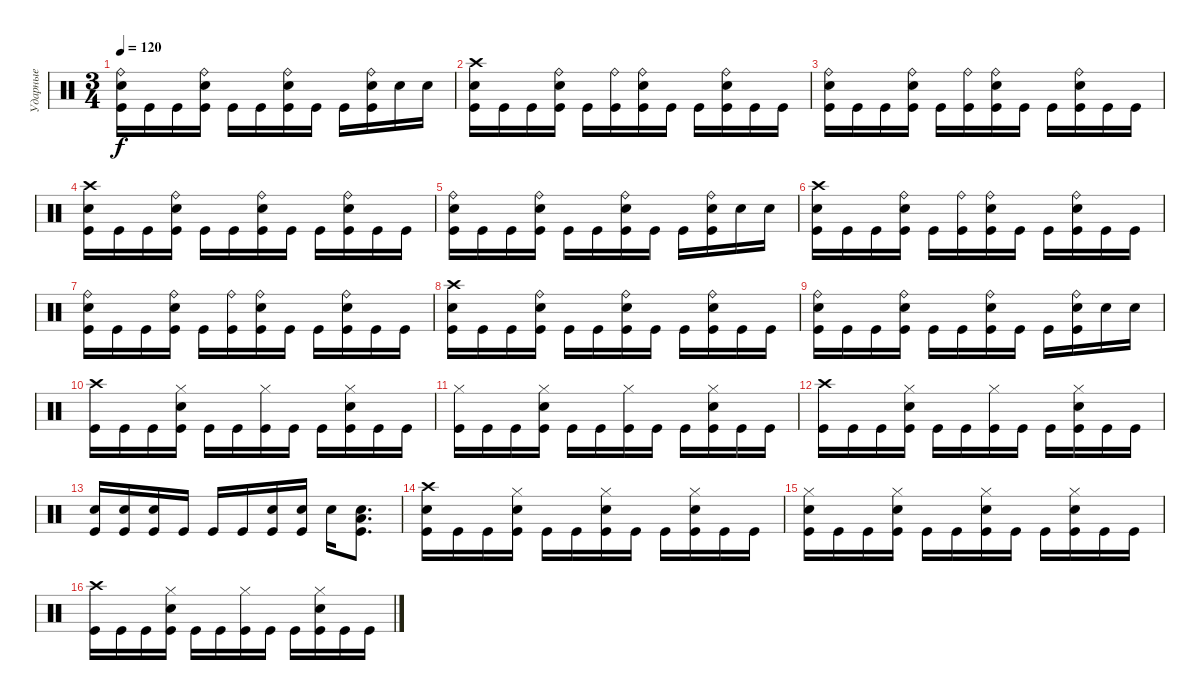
\track ("Ударные" "Ударные") {instrument percussion}
\staff {score}
\articulation defaults
\ts (3 4)
\tempo 120
\clef neutral
\ks c
("Ride (bell)" "Electric Snare (hit)" "Kick (hit)").16{dy f} "Kick (hit)".16 "Kick (hit)".16 ("Ride (bell)" "Electric Snare (hit)" "Kick (hit)").16 "Kick (hit)".16 "Kick (hit)".16 ("Ride (bell)" "Electric Snare (hit)" "Kick (hit)").16 "Kick (hit)".16 "Kick (hit)".16 ("Ride (bell)" "Electric Snare (hit)" "Kick (hit)").16 "Electric Snare (hit)".16 "Electric Snare (hit)".16 |
("Crash high (hit)" "Electric Snare (hit)" "Kick (hit)").16 "Kick (hit)".16 "Kick (hit)".16 ("Ride (bell)" "Electric Snare (hit)" "Kick (hit)").16 "Kick (hit)".16 ("Ride (bell)" "Kick (hit)").16 ("Ride (bell)" "Electric Snare (hit)" "Kick (hit)").16 "Kick (hit)".16 "Kick (hit)".16 ("Ride (bell)" "Electric Snare (hit)" "Kick (hit)").16 "Kick (hit)".16 "Kick (hit)".16 |
("Ride (bell)" "Electric Snare (hit)" "Kick (hit)").16 "Kick (hit)".16 "Kick (hit)".16 ("Ride (bell)" "Electric Snare (hit)" "Kick (hit)").16 "Kick (hit)".16 ("Ride (bell)" "Kick (hit)").16 ("Ride (bell)" "Electric Snare (hit)" "Kick (hit)").16 "Kick (hit)".16 "Kick (hit)".16 ("Ride (bell)" "Electric Snare (hit)" "Kick (hit)").16 "Kick (hit)".16 "Kick (hit)".16 |
("Crash high (hit)" "Electric Snare (hit)" "Kick (hit)").16 "Kick (hit)".16 "Kick (hit)".16 ("Ride (bell)" "Electric Snare (hit)" "Kick (hit)").16 "Kick (hit)".16 "Kick (hit)".16 ("Ride (bell)" "Electric Snare (hit)" "Kick (hit)").16 "Kick (hit)".16 "Kick (hit)".16 ("Ride (bell)" "Electric Snare (hit)" "Kick (hit)").16 "Kick (hit)".16 "Kick (hit)".16 |
("Ride (bell)" "Electric Snare (hit)" "Kick (hit)").16 "Kick (hit)".16 "Kick (hit)".16 ("Ride (bell)" "Electric Snare (hit)" "Kick (hit)").16 "Kick (hit)".16 "Kick (hit)".16 ("Ride (bell)" "Electric Snare (hit)" "Kick (hit)").16 "Kick (hit)".16 "Kick (hit)".16 ("Ride (bell)" "Electric Snare (hit)" "Kick (hit)").16 "Electric Snare (hit)".16 "Electric Snare (hit)".16 |
("Crash high (hit)" "Electric Snare (hit)" "Kick (hit)").16 "Kick (hit)".16 "Kick (hit)".16 ("Ride (bell)" "Electric Snare (hit)" "Kick (hit)").16 "Kick (hit)".16 ("Ride (bell)" "Kick (hit)").16 ("Ride (bell)" "Electric Snare (hit)" "Kick (hit)").16 "Kick (hit)".16 "Kick (hit)".16 ("Ride (bell)" "Electric Snare (hit)" "Kick (hit)").16 "Kick (hit)".16 "Kick (hit)".16 |
("Ride (bell)" "Electric Snare (hit)" "Kick (hit)").16 "Kick (hit)".16 "Kick (hit)".16 ("Ride (bell)" "Electric Snare (hit)" "Kick (hit)").16 "Kick (hit)".16 ("Ride (bell)" "Kick (hit)").16 ("Ride (bell)" "Electric Snare (hit)" "Kick (hit)").16 "Kick (hit)".16 "Kick (hit)".16 ("Ride (bell)" "Electric Snare (hit)" "Kick (hit)").16 "Kick (hit)".16 "Kick (hit)".16 |
("Crash high (hit)" "Electric Snare (hit)" "Kick (hit)").16 "Kick (hit)".16 "Kick (hit)".16 ("Ride (bell)" "Electric Snare (hit)" "Kick (hit)").16 "Kick (hit)".16 "Kick (hit)".16 ("Ride (bell)" "Electric Snare (hit)" "Kick (hit)").16 "Kick (hit)".16 "Kick (hit)".16 ("Ride (bell)" "Electric Snare (hit)" "Kick (hit)").16 "Kick (hit)".16 "Kick (hit)".16 |
("Ride (bell)" "Electric Snare (hit)" "Kick (hit)").16 "Kick (hit)".16 "Kick (hit)".16 ("Ride (bell)" "Electric Snare (hit)" "Kick (hit)").16 "Kick (hit)".16 "Kick (hit)".16 ("Ride (bell)" "Electric Snare (hit)" "Kick (hit)").16 "Kick (hit)".16 "Kick (hit)".16 ("Ride (bell)" "Electric Snare (hit)" "Kick (hit)").16 "Electric Snare (hit)".16 "Electric Snare (hit)".16 |
("Crash high (hit)" "Kick (hit)").16 "Kick (hit)".16 "Kick (hit)".16 ("Hi-Hat (closed)" "Electric Snare (hit)" "Kick (hit)").16 "Kick (hit)".16 "Kick (hit)".16 ("Hi-Hat (closed)" "Kick (hit)").16 "Kick (hit)".16 "Kick (hit)".16 ("Hi-Hat (closed)" "Electric Snare (hit)" "Kick (hit)").16 "Kick (hit)".16 "Kick (hit)".16 |
("Hi-Hat (closed)" "Kick (hit)").16 "Kick (hit)".16 "Kick (hit)".16 ("Hi-Hat (closed)" "Electric Snare (hit)" "Kick (hit)").16 "Kick (hit)".16 "Kick (hit)".16 ("Hi-Hat (closed)" "Kick (hit)").16 "Kick (hit)".16 "Kick (hit)".16 ("Hi-Hat (closed)" "Electric Snare (hit)" "Kick (hit)").16 "Kick (hit)".16 "Kick (hit)".16 |
("Crash high (hit)" "Kick (hit)").16 "Kick (hit)".16 "Kick (hit)".16 ("Hi-Hat (closed)" "Electric Snare (hit)" "Kick (hit)").16 "Kick (hit)".16 "Kick (hit)".16 ("Hi-Hat (closed)" "Kick (hit)").16 "Kick (hit)".16 "Kick (hit)".16 ("Hi-Hat (closed)" "Electric Snare (hit)" "Kick (hit)").16 "Kick (hit)".16 "Kick (hit)".16 |
("Electric Snare (hit)" "Kick (hit)").16 ("Electric Snare (hit)" "Kick (hit)").16 ("Electric Snare (hit)" "Kick (hit)").16 "Kick (hit)".16 "Kick (hit)".16 "Kick (hit)".16 ("Electric Snare (hit)" "Kick (hit)").16 ("Electric Snare (hit)" "Kick (hit)").16 "Electric Snare (hit)".16 ("Electric Snare (hit)" "Low Tom (hit)" "Kick (hit)").8{d} |
("Crash high (hit)" "Electric Snare (hit)" "Kick (hit)").16 "Kick (hit)".16 "Kick (hit)".16 ("Hi-Hat (closed)" "Electric Snare (hit)" "Kick (hit)").16 "Kick (hit)".16 "Kick (hit)".16 ("Hi-Hat (closed)" "Electric Snare (hit)" "Kick (hit)").16 "Kick (hit)".16 "Kick (hit)".16 ("Hi-Hat (closed)" "Electric Snare (hit)" "Kick (hit)").16 "Kick (hit)".16 "Kick (hit)".16 |
("Hi-Hat (closed)" "Electric Snare (hit)" "Kick (hit)").16 "Kick (hit)".16 "Kick (hit)".16 ("Hi-Hat (closed)" "Electric Snare (hit)" "Kick (hit)").16 "Kick (hit)".16 "Kick (hit)".16 ("Hi-Hat (closed)" "Electric Snare (hit)" "Kick (hit)").16 "Kick (hit)".16 "Kick (hit)".16 ("Hi-Hat (closed)" "Electric Snare (hit)" "Kick (hit)").16 "Kick (hit)".16 "Kick (hit)".16 |
("Crash high (hit)" "Kick (hit)").16 "Kick (hit)".16 "Kick (hit)".16 ("Hi-Hat (closed)" "Electric Snare (hit)" "Kick (hit)").16 "Kick (hit)".16 "Kick (hit)".16 ("Hi-Hat (closed)" "Kick (hit)").16 "Kick (hit)".16 "Kick (hit)".16 ("Hi-Hat (closed)" "Electric Snare (hit)" "Kick (hit)").16 "Kick (hit)".16 "Kick (hit)".16
